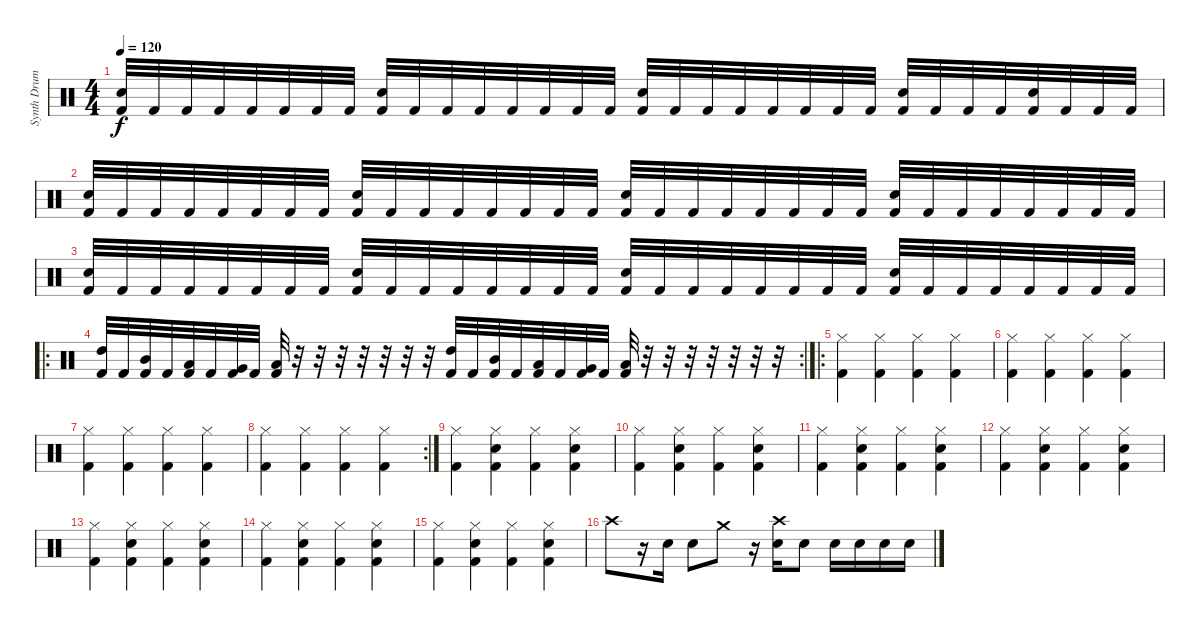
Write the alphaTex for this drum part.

\track ("Synth Drums" "Synth Drum") {instrument percussion}
\staff {score}
\articulation defaults
\ts (4 4)
\tempo 120
\clef neutral
\ks c
("Snare (hit) 2" "Kick (hit) 2").32{dy f} "Kick (hit) 2".32 "Kick (hit) 2".32 "Kick (hit) 2".32 "Kick (hit) 2".32 "Kick (hit) 2".32 "Kick (hit) 2".32 "Kick (hit) 2".32 ("Snare (hit) 2" "Kick (hit) 2").32 "Kick (hit) 2".32 "Kick (hit) 2".32 "Kick (hit) 2".32 "Kick (hit) 2".32 "Kick (hit) 2".32 "Kick (hit) 2".32 "Kick (hit) 2".32 ("Snare (hit) 2" "Kick (hit) 2").32 "Kick (hit) 2".32 "Kick (hit) 2".32 "Kick (hit) 2".32 "Kick (hit) 2".32 "Kick (hit) 2".32 "Kick (hit) 2".32 "Kick (hit) 2".32 ("Snare (hit) 2" "Kick (hit) 2").32 "Kick (hit) 2".32 "Kick (hit) 2".32 "Kick (hit) 2".32 ("Snare (hit) 2" "Kick (hit) 2").32 "Kick (hit) 2".32 "Kick (hit) 2".32 "Kick (hit) 2".32 |
("Snare (hit) 2" "Kick (hit) 2").32 "Kick (hit) 2".32 "Kick (hit) 2".32 "Kick (hit) 2".32 "Kick (hit) 2".32 "Kick (hit) 2".32 "Kick (hit) 2".32 "Kick (hit) 2".32 ("Snare (hit) 2" "Kick (hit) 2").32 "Kick (hit) 2".32 "Kick (hit) 2".32 "Kick (hit) 2".32 "Kick (hit) 2".32 "Kick (hit) 2".32 "Kick (hit) 2".32 "Kick (hit) 2".32 ("Snare (hit) 2" "Kick (hit) 2").32 "Kick (hit) 2".32 "Kick (hit) 2".32 "Kick (hit) 2".32 "Kick (hit) 2".32 "Kick (hit) 2".32 "Kick (hit) 2".32 "Kick (hit) 2".32 ("Snare (hit) 2" "Kick (hit) 2").32 "Kick (hit) 2".32 "Kick (hit) 2".32 "Kick (hit) 2".32 "Kick (hit) 2".32 "Kick (hit) 2".32 "Kick (hit) 2".32 "Kick (hit) 2".32 |
("Snare (hit) 2" "Kick (hit) 2").32 "Kick (hit) 2".32 "Kick (hit) 2".32 "Kick (hit) 2".32 "Kick (hit) 2".32 "Kick (hit) 2".32 "Kick (hit) 2".32 "Kick (hit) 2".32 ("Snare (hit) 2" "Kick (hit) 2").32 "Kick (hit) 2".32 "Kick (hit) 2".32 "Kick (hit) 2".32 "Kick (hit) 2".32 "Kick (hit) 2".32 "Kick (hit) 2".32 "Kick (hit) 2".32 ("Snare (hit) 2" "Kick (hit) 2").32 "Kick (hit) 2".32 "Kick (hit) 2".32 "Kick (hit) 2".32 "Kick (hit) 2".32 "Kick (hit) 2".32 "Kick (hit) 2".32 "Kick (hit) 2".32 ("Snare (hit) 2" "Kick (hit) 2").32 "Kick (hit) 2".32 "Kick (hit) 2".32 "Kick (hit) 2".32 "Kick (hit) 2".32 "Kick (hit) 2".32 "Kick (hit) 2".32 "Kick (hit) 2".32 |
\ro
\rc 2
("High Tom (hit)" "Kick (hit) 2").32 "Kick (hit) 2".32 ("Mid Tom (hit)" "Kick (hit) 2").32 "Kick (hit) 2".32 ("Low Tom (hit)" "Kick (hit) 2").32 "Kick (hit) 2".32 ("Very Low Tom (hit)" "Kick (hit) 2").32 "Kick (hit) 2".32 ("Low Floor Tom (hit)" "Kick (hit) 2").32 r.32 r.32 r.32 r.32 r.32 r.32 r.32 ("High Tom (hit)" "Kick (hit) 2").32 "Kick (hit) 2".32 ("Mid Tom (hit)" "Kick (hit) 2").32 "Kick (hit) 2".32 ("Low Tom (hit)" "Kick (hit) 2").32 "Kick (hit) 2".32 ("Very Low Tom (hit)" "Kick (hit) 2").32 "Kick (hit) 2".32 ("Low Floor Tom (hit)" "Kick (hit) 2").32 r.32 r.32 r.32 r.32 r.32 r.32 r.32 |
\ro
("Hi-Hat (closed)" "Kick (hit) 2").4 ("Hi-Hat (closed)" "Kick (hit) 2").4 ("Hi-Hat (closed)" "Kick (hit) 2").4 ("Hi-Hat (closed)" "Kick (hit) 2").4 |
("Hi-Hat (closed)" "Kick (hit) 2").4 ("Hi-Hat (closed)" "Kick (hit) 2").4 ("Hi-Hat (closed)" "Kick (hit) 2").4 ("Hi-Hat (closed)" "Kick (hit) 2").4 |
("Hi-Hat (closed)" "Kick (hit) 2").4 ("Hi-Hat (closed)" "Kick (hit) 2").4 ("Hi-Hat (closed)" "Kick (hit) 2").4 ("Hi-Hat (closed)" "Kick (hit) 2").4 |
\rc 2
("Hi-Hat (closed)" "Kick (hit) 2").4 ("Hi-Hat (closed)" "Kick (hit) 2").4 ("Hi-Hat (closed)" "Kick (hit) 2").4 ("Hi-Hat (closed)" "Kick (hit) 2").4 |
("Hi-Hat (closed)" "Kick (hit) 2").4 ("Snare (hit) 2" "Hi-Hat (closed)" "Kick (hit) 2").4 ("Hi-Hat (closed)" "Kick (hit) 2").4 ("Snare (hit) 2" "Hi-Hat (closed)" "Kick (hit) 2").4 |
("Hi-Hat (closed)" "Kick (hit) 2").4 ("Snare (hit) 2" "Hi-Hat (closed)" "Kick (hit) 2").4 ("Hi-Hat (closed)" "Kick (hit) 2").4 ("Snare (hit) 2" "Hi-Hat (closed)" "Kick (hit) 2").4 |
("Hi-Hat (closed)" "Kick (hit) 2").4 ("Snare (hit) 2" "Hi-Hat (closed)" "Kick (hit) 2").4 ("Hi-Hat (closed)" "Kick (hit) 2").4 ("Snare (hit) 2" "Hi-Hat (closed)" "Kick (hit) 2").4 |
("Hi-Hat (closed)" "Kick (hit) 2").4 ("Snare (hit) 2" "Hi-Hat (closed)" "Kick (hit) 2").4 ("Hi-Hat (closed)" "Kick (hit) 2").4 ("Snare (hit) 2" "Hi-Hat (closed)" "Kick (hit) 2").4 |
("Hi-Hat (closed)" "Kick (hit) 2").4 ("Snare (hit) 2" "Hi-Hat (closed)" "Kick (hit) 2").4 ("Hi-Hat (closed)" "Kick (hit) 2").4 ("Snare (hit) 2" "Hi-Hat (closed)" "Kick (hit) 2").4 |
("Hi-Hat (closed)" "Kick (hit) 2").4 ("Snare (hit) 2" "Hi-Hat (closed)" "Kick (hit) 2").4 ("Hi-Hat (closed)" "Kick (hit) 2").4 ("Snare (hit) 2" "Hi-Hat (closed)" "Kick (hit) 2").4 |
("Hi-Hat (closed)" "Kick (hit) 2").4 ("Snare (hit) 2" "Hi-Hat (closed)" "Kick (hit) 2").4 ("Hi-Hat (closed)" "Kick (hit) 2").4 ("Snare (hit) 2" "Hi-Hat (closed)" "Kick (hit) 2").4 |
"Crash high (hit)".8 r.16 "Electric Snare (hit)".16 "Electric Snare (hit)".8 "Crash medium (hit)".8 r.16 ("Crash high (hit)" "Electric Snare (hit)").16 "Electric Snare (hit)".8 "Snare (hit) 2".16 "Snare (hit) 2".16 "Snare (hit) 2".16 "Snare (hit) 2".16
